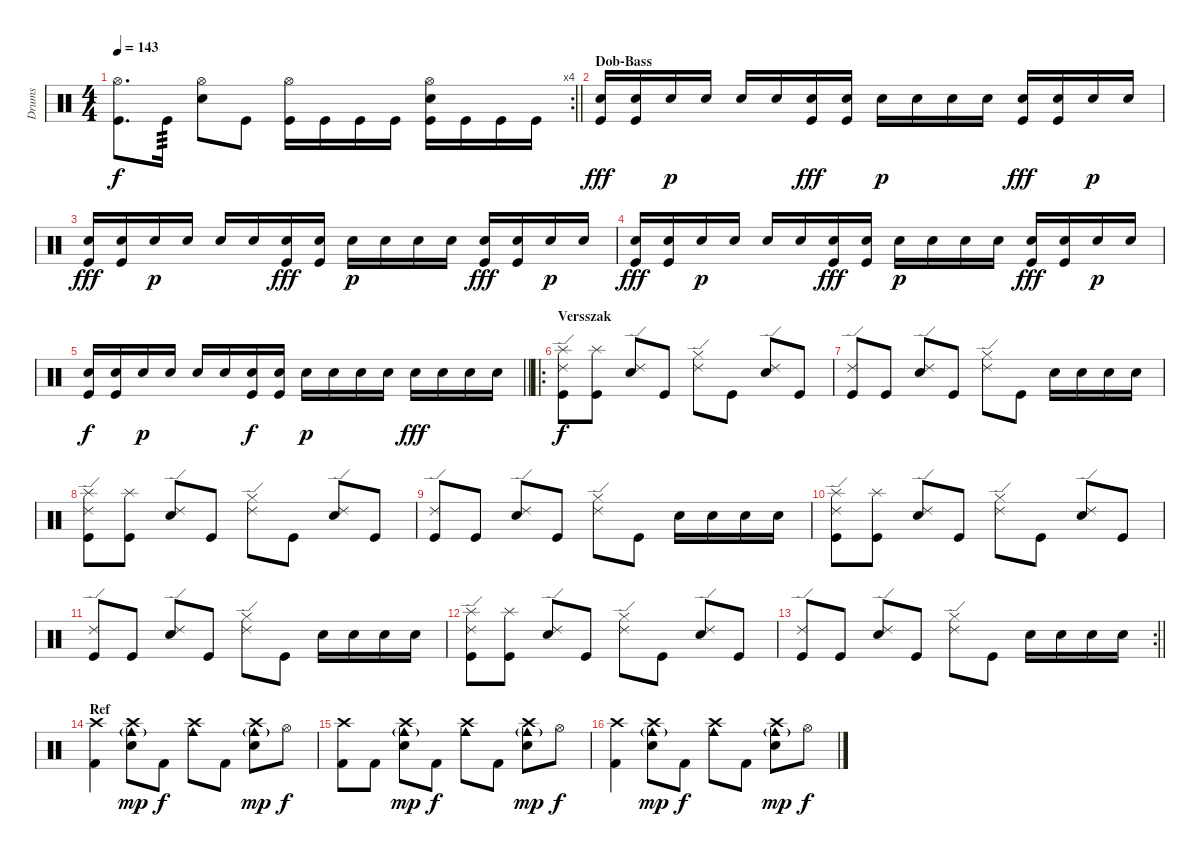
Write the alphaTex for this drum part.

\track ("Drums" "Drums") {instrument percussion}
\staff {score}
\articulation defaults
\rc 4
\ts (4 4)
\tempo 143
\clef neutral
\barLineRight lightlight
\ks c
("Hi-Hat (open)" "Kick (hit)").8{d dy f} "Kick (hit)".16{tp 3} ("Hi-Hat (open)" "Electric Snare (hit)").8 "Kick (hit)".8 ("Hi-Hat (open)" "Kick (hit)").16 "Kick (hit)".16 "Kick (hit)".16 "Kick (hit)".16 ("Hi-Hat (open)" "Electric Snare (hit)" "Kick (hit)").16 "Kick (hit)".16 "Kick (hit)".16 "Kick (hit)".16 |
\section ("" "Dob-Bass")
("Electric Snare (hit)" "Kick (hit)").16{dy fff} ("Electric Snare (hit)" "Kick (hit)").16 "Electric Snare (hit)".16{dy p} "Electric Snare (hit)".16 "Electric Snare (hit)".16 "Electric Snare (hit)".16 ("Electric Snare (hit)" "Kick (hit)").16{dy fff} ("Electric Snare (hit)" "Kick (hit)").16 "Electric Snare (hit)".16{dy p} "Electric Snare (hit)".16 "Electric Snare (hit)".16 "Electric Snare (hit)".16 ("Electric Snare (hit)" "Kick (hit)").16{dy fff} ("Electric Snare (hit)" "Kick (hit)").16 "Electric Snare (hit)".16{dy p} "Electric Snare (hit)".16 |
("Electric Snare (hit)" "Kick (hit)").16{dy fff} ("Electric Snare (hit)" "Kick (hit)").16 "Electric Snare (hit)".16{dy p} "Electric Snare (hit)".16 "Electric Snare (hit)".16 "Electric Snare (hit)".16 ("Electric Snare (hit)" "Kick (hit)").16{dy fff} ("Electric Snare (hit)" "Kick (hit)").16 "Electric Snare (hit)".16{dy p} "Electric Snare (hit)".16 "Electric Snare (hit)".16 "Electric Snare (hit)".16 ("Electric Snare (hit)" "Kick (hit)").16{dy fff} ("Electric Snare (hit)" "Kick (hit)").16 "Electric Snare (hit)".16{dy p} "Electric Snare (hit)".16 |
("Electric Snare (hit)" "Kick (hit)").16{dy fff} ("Electric Snare (hit)" "Kick (hit)").16 "Electric Snare (hit)".16{dy p} "Electric Snare (hit)".16 "Electric Snare (hit)".16 "Electric Snare (hit)".16 ("Electric Snare (hit)" "Kick (hit)").16{dy fff} ("Electric Snare (hit)" "Kick (hit)").16 "Electric Snare (hit)".16{dy p} "Electric Snare (hit)".16 "Electric Snare (hit)".16 "Electric Snare (hit)".16 ("Electric Snare (hit)" "Kick (hit)").16{dy fff} ("Electric Snare (hit)" "Kick (hit)").16 "Electric Snare (hit)".16{dy p} "Electric Snare (hit)".16 |
\barLineRight lightlight
("Electric Snare (hit)" "Kick (hit)").16{dy f} ("Electric Snare (hit)" "Kick (hit)").16 "Electric Snare (hit)".16{dy p} "Electric Snare (hit)".16 "Electric Snare (hit)".16 "Electric Snare (hit)".16 ("Electric Snare (hit)" "Kick (hit)").16{dy f} ("Electric Snare (hit)" "Kick (hit)").16 "Electric Snare (hit)".16{dy p} "Electric Snare (hit)".16 "Electric Snare (hit)".16 "Electric Snare (hit)".16 "Electric Snare (hit)".16{dy fff} "Electric Snare (hit)".16 "Electric Snare (hit)".16 "Electric Snare (hit)".16 |
\ro
\section ("" "Versszak")
("Ride (edge) 2" "Splash (hit)" "Kick (hit)").8{dy f} ("Splash (hit)" "Kick (hit)").8 ("Ride (edge) 2" "Electric Snare (hit)").8 "Kick (hit)".8 ("Ride (edge) 2" "Hi-Hat (closed)").8 "Kick (hit)".8 ("Ride (edge) 2" "Electric Snare (hit)").8 "Kick (hit)".8 |
("Ride (edge) 2" "Kick (hit)").8 "Kick (hit)".8 ("Ride (edge) 2" "Electric Snare (hit)").8 "Kick (hit)".8 ("Ride (edge) 2" "Hi-Hat (closed)").8 "Kick (hit)".8 "Electric Snare (hit)".16{balance 0} "Electric Snare (hit)".16{balance 5} "Electric Snare (hit)".16{balance 11} "Electric Snare (hit)".16{balance 16} |
("Ride (edge) 2" "Splash (hit)" "Kick (hit)").8 ("Splash (hit)" "Kick (hit)").8 ("Ride (edge) 2" "Electric Snare (hit)").8 "Kick (hit)".8 ("Ride (edge) 2" "Hi-Hat (closed)").8 "Kick (hit)".8 ("Ride (edge) 2" "Electric Snare (hit)").8 "Kick (hit)".8 |
("Ride (edge) 2" "Kick (hit)").8 "Kick (hit)".8 ("Ride (edge) 2" "Electric Snare (hit)").8 "Kick (hit)".8 ("Ride (edge) 2" "Hi-Hat (closed)").8 "Kick (hit)".8 "Electric Snare (hit)".16{balance 0} "Electric Snare (hit)".16{balance 5} "Electric Snare (hit)".16{balance 11} "Electric Snare (hit)".16{balance 16} |
("Ride (edge) 2" "Splash (hit)" "Kick (hit)").8 ("Splash (hit)" "Kick (hit)").8 ("Ride (edge) 2" "Electric Snare (hit)").8 "Kick (hit)".8 ("Ride (edge) 2" "Hi-Hat (closed)").8 "Kick (hit)".8 ("Ride (edge) 2" "Electric Snare (hit)").8 "Kick (hit)".8 |
("Ride (edge) 2" "Kick (hit)").8 "Kick (hit)".8 ("Ride (edge) 2" "Electric Snare (hit)").8 "Kick (hit)".8 ("Ride (edge) 2" "Hi-Hat (closed)").8 "Kick (hit)".8 "Electric Snare (hit)".16{balance 0} "Electric Snare (hit)".16{balance 5} "Electric Snare (hit)".16{balance 11} "Electric Snare (hit)".16{balance 16} |
("Ride (edge) 2" "Splash (hit)" "Kick (hit)").8 ("Splash (hit)" "Kick (hit)").8 ("Ride (edge) 2" "Electric Snare (hit)").8 "Kick (hit)".8 ("Ride (edge) 2" "Hi-Hat (closed)").8 "Kick (hit)".8 ("Ride (edge) 2" "Electric Snare (hit)").8 "Kick (hit)".8 |
\rc 2
\barLineRight lightlight
("Ride (edge) 2" "Kick (hit)").8 "Kick (hit)".8 ("Ride (edge) 2" "Electric Snare (hit)").8 "Kick (hit)".8 ("Ride (edge) 2" "Hi-Hat (closed)").8 "Kick (hit)".8 "Electric Snare (hit)".16{balance 0} "Electric Snare (hit)".16{balance 5} "Electric Snare (hit)".16{balance 11} "Electric Snare (hit)".16{balance 16} |
\section ("" "Ref")
("Crash high (hit)" "Kick (hit) 2").4 ("Crash high (hit)" "Electric Snare (hit)" "Cowbell medium (hit)"{g}).8{dy mp} "Kick (hit) 2".8{dy f} ("Crash high (hit)" "Cowbell medium (hit)").8 "Kick (hit) 2".8 ("Crash high (hit)" "Electric Snare (hit)" "Cowbell medium (hit)"{g}).8{dy mp} "Hi-Hat (open)".8{dy f} |
("Crash high (hit)" "Kick (hit) 2").8 "Kick (hit) 2".8 ("Crash high (hit)" "Electric Snare (hit)" "Cowbell medium (hit)"{g}).8{dy mp} "Kick (hit) 2".8{dy f} ("Crash high (hit)" "Cowbell medium (hit)").8 "Kick (hit) 2".8 ("Crash high (hit)" "Electric Snare (hit)" "Cowbell medium (hit)"{g}).8{dy mp} "Hi-Hat (open)".8{dy f} |
("Crash high (hit)" "Kick (hit) 2").4 ("Crash high (hit)" "Electric Snare (hit)" "Cowbell medium (hit)"{g}).8{dy mp} "Kick (hit) 2".8{dy f} ("Crash high (hit)" "Cowbell medium (hit)").8 "Kick (hit) 2".8 ("Crash high (hit)" "Electric Snare (hit)" "Cowbell medium (hit)"{g}).8{dy mp} "Hi-Hat (open)".8{dy f}
